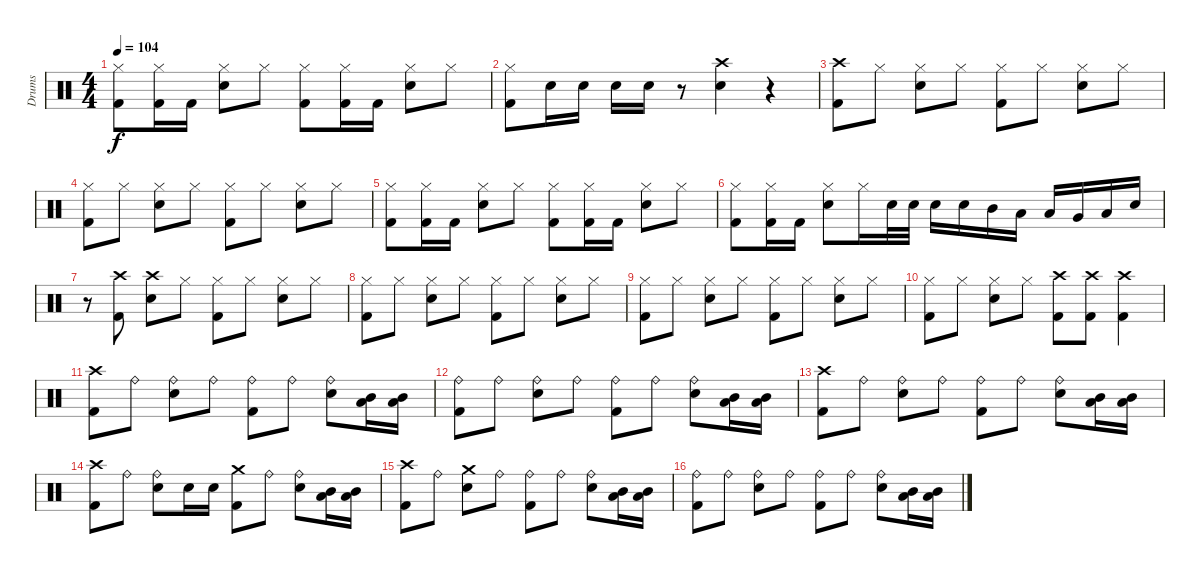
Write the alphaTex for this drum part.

\track ("Drums" "Drums") {instrument percussion}
\staff {score}
\articulation defaults
\ts (4 4)
\tempo 104
\clef neutral
\ks c
("Hi-Hat (closed)" "Kick (hit) 2").8{dy f} ("Kick (hit) 2" "Hi-Hat (closed)").16 "Kick (hit) 2".16 ("Hi-Hat (closed)" "Snare (hit) 2").8 "Hi-Hat (closed)".8 ("Hi-Hat (closed)" "Kick (hit) 2").8 ("Kick (hit) 2" "Hi-Hat (closed)").16 "Kick (hit) 2".16 ("Hi-Hat (closed)" "Snare (hit) 2").8 "Hi-Hat (closed)".8 |
("Kick (hit) 2" "Hi-Hat (closed)").8 "Snare (hit) 2".16 "Snare (hit) 2".16 "Snare (hit) 2".16 "Snare (hit) 2".16 r.8 ("Crash high (hit)" "Snare (hit) 2").4 r.4 |
("Kick (hit) 2" "Crash high (hit)").8 "Hi-Hat (closed)".8 ("Hi-Hat (closed)" "Snare (hit) 2").8 "Hi-Hat (closed)".8 ("Hi-Hat (closed)" "Kick (hit) 2").8 "Hi-Hat (closed)".8 ("Hi-Hat (closed)" "Snare (hit) 2").8 "Hi-Hat (closed)".8 |
("Kick (hit) 2" "Hi-Hat (closed)").8 "Hi-Hat (closed)".8 ("Hi-Hat (closed)" "Snare (hit) 2").8 "Hi-Hat (closed)".8 ("Kick (hit) 2" "Hi-Hat (closed)").8 "Hi-Hat (closed)".8 ("Hi-Hat (closed)" "Snare (hit) 2").8 "Hi-Hat (closed)".8 |
("Hi-Hat (closed)" "Kick (hit) 2").8 ("Kick (hit) 2" "Hi-Hat (closed)").16 "Kick (hit) 2".16 ("Hi-Hat (closed)" "Snare (hit) 2").8 "Hi-Hat (closed)".8 ("Hi-Hat (closed)" "Kick (hit) 2").8 ("Kick (hit) 2" "Hi-Hat (closed)").16 "Kick (hit) 2".16 ("Hi-Hat (closed)" "Snare (hit) 2").8 "Hi-Hat (closed)".8 |
("Hi-Hat (closed)" "Kick (hit) 2").8 ("Hi-Hat (closed)" "Kick (hit) 2").16 "Kick (hit) 2".16 ("Snare (hit) 2" "Hi-Hat (closed)").8 "Hi-Hat (closed)".16 "Snare (hit) 2".32 "Snare (hit) 2".32 "Snare (hit) 2".16 "Snare (hit) 2".16 "Mid Tom (hit)".16 "Low Tom (hit)".16 "Low Tom (hit)".16 "Very Low Tom (hit)".16 "Low Floor Tom (hit)".16 "Snare (hit) 2".16 |
r.8 ("Crash high (hit)" "Kick (hit) 2").8 ("Snare (hit) 2" "Crash high (hit)").8 "Hi-Hat (closed)".8 ("Kick (hit) 2" "Hi-Hat (closed)").8 "Hi-Hat (closed)".8 ("Snare (hit) 2" "Hi-Hat (closed)").8 "Hi-Hat (closed)".8 |
("Kick (hit) 2" "Hi-Hat (closed)").8 "Hi-Hat (closed)".8 ("Snare (hit) 2" "Hi-Hat (closed)").8 "Hi-Hat (closed)".8 ("Kick (hit) 2" "Hi-Hat (closed)").8 "Hi-Hat (closed)".8 ("Snare (hit) 2" "Hi-Hat (closed)").8 "Hi-Hat (closed)".8 |
("Kick (hit) 2" "Hi-Hat (closed)").8 "Hi-Hat (closed)".8 ("Snare (hit) 2" "Hi-Hat (closed)").8 "Hi-Hat (closed)".8 ("Hi-Hat (closed)" "Kick (hit) 2").8 "Hi-Hat (closed)".8 ("Hi-Hat (closed)" "Snare (hit) 2").8 "Hi-Hat (closed)".8 |
("Hi-Hat (closed)" "Kick (hit) 2").8 "Hi-Hat (closed)".8 ("Hi-Hat (closed)" "Snare (hit) 2").8 "Hi-Hat (closed)".8 ("Kick (hit) 2" "Crash high (hit)").8 ("Kick (hit) 2" "Crash high (hit)").8 ("Crash high (hit)" "Kick (hit) 2").4 |
("Kick (hit) 2" "Crash high (hit)").8 "Ride (bell)".8 ("Snare (hit) 2" "Ride (bell)").8 "Ride (bell)".8 ("Ride (bell)" "Kick (hit) 2").8 "Ride (bell)".8 ("Ride (bell)" "Snare (hit) 2").8 ("Mid Tom (hit)" "Low Tom (hit)").16 ("Low Tom (hit)" "Mid Tom (hit)").16 |
("Kick (hit) 2" "Ride (bell)").8 "Ride (bell)".8 ("Snare (hit) 2" "Ride (bell)").8 "Ride (bell)".8 ("Ride (bell)" "Kick (hit) 2").8 "Ride (bell)".8 ("Snare (hit) 2" "Ride (bell)").8 ("Mid Tom (hit)" "Low Tom (hit)").16 ("Low Tom (hit)" "Mid Tom (hit)").16 |
("Kick (hit) 2" "Crash high (hit)").8 "Ride (bell)".8 ("Ride (bell)" "Snare (hit) 2").8 "Ride (bell)".8 ("Ride (bell)" "Kick (hit) 2").8 "Ride (bell)".8 ("Ride (bell)" "Snare (hit) 2").8 ("Mid Tom (hit)" "Low Tom (hit)").16 ("Mid Tom (hit)" "Low Tom (hit)").16 |
("Kick (hit) 2" "Crash high (hit)").8 "Ride (bell)".8 ("Snare (hit) 2" "Ride (bell)").8 "Snare (hit) 2".16 "Snare (hit) 2".16 ("Crash medium (hit)" "Kick (hit) 2").8 "Ride (bell)".8 ("Snare (hit) 2" "Ride (bell)").8 ("Mid Tom (hit)" "Low Tom (hit)").16 ("Low Tom (hit)" "Mid Tom (hit)").16 |
("Kick (hit) 2" "Crash high (hit)").8 "Ride (bell)".8 ("Snare (hit) 2" "Crash medium (hit)").8 "Ride (bell)".8 ("Ride (bell)" "Kick (hit) 2").8 "Ride (bell)".8 ("Snare (hit) 2" "Ride (bell)").8 ("Mid Tom (hit)" "Low Tom (hit)").16 ("Low Tom (hit)" "Mid Tom (hit)").16 |
("Kick (hit) 2" "Ride (bell)").8 "Ride (bell)".8 ("Ride (bell)" "Snare (hit) 2").8 "Ride (bell)".8 ("Kick (hit) 2" "Ride (bell)").8 "Ride (bell)".8 ("Ride (bell)" "Snare (hit) 2").8 ("Mid Tom (hit)" "Low Tom (hit)").16 ("Mid Tom (hit)" "Low Tom (hit)").16
